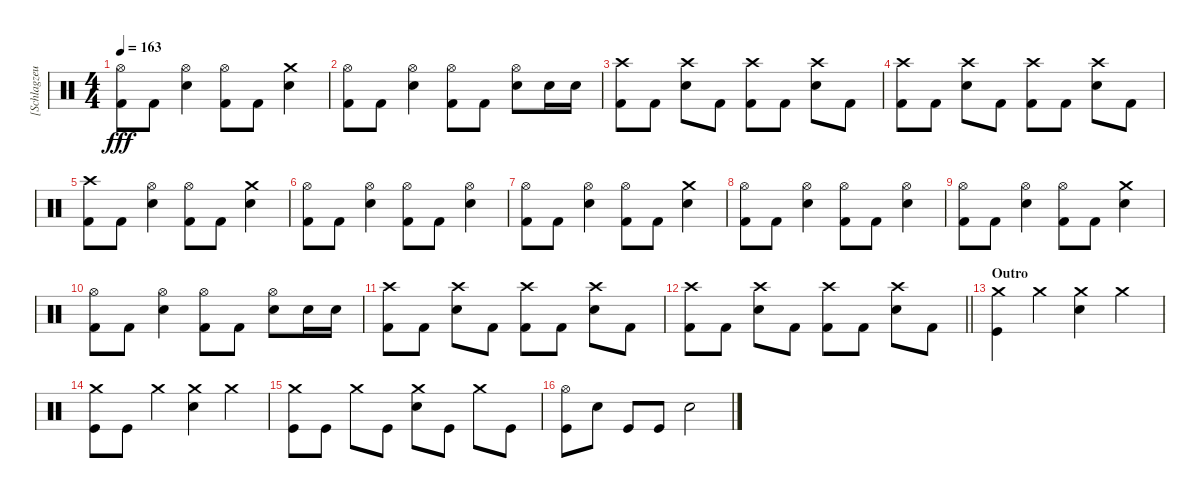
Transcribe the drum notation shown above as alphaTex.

\track ("[Schlagzeug]" "[Schlagzeu") {instrument percussion}
\staff {score}
\articulation defaults
\ts (4 4)
\tempo 163
\clef neutral
\ks c
("Hi-Hat (open)" "Kick (hit) 2").8{dy fff} "Kick (hit) 2".8 ("Hi-Hat (open)" "Electric Snare (hit)").4 ("Hi-Hat (open)" "Kick (hit) 2").8 "Kick (hit) 2".8 ("Crash medium (hit)" "Electric Snare (hit)").4 |
("Hi-Hat (open)" "Kick (hit) 2").8 "Kick (hit) 2".8 ("Hi-Hat (open)" "Electric Snare (hit)").4 ("Hi-Hat (open)" "Kick (hit) 2").8 "Kick (hit) 2".8 ("Hi-Hat (open)" "Electric Snare (hit)").8 "Electric Snare (hit)".16 "Electric Snare (hit)".16 |
("Crash high (hit)" "Kick (hit) 2").8 "Kick (hit) 2".8 ("Crash high (hit)" "Electric Snare (hit)").8 "Kick (hit) 2".8 ("Crash high (hit)" "Kick (hit) 2").8 "Kick (hit) 2".8 ("Crash high (hit)" "Electric Snare (hit)").8 "Kick (hit) 2".8 |
("Crash high (hit)" "Kick (hit) 2").8 "Kick (hit) 2".8 ("Crash high (hit)" "Electric Snare (hit)").8 "Kick (hit) 2".8 ("Crash high (hit)" "Kick (hit) 2").8 "Kick (hit) 2".8 ("Crash high (hit)" "Electric Snare (hit)").8 "Kick (hit) 2".8 |
("Crash high (hit)" "Kick (hit) 2").8 "Kick (hit) 2".8 ("Hi-Hat (open)" "Electric Snare (hit)").4 ("Hi-Hat (open)" "Kick (hit) 2").8 "Kick (hit) 2".8 ("Crash medium (hit)" "Electric Snare (hit)").4 |
("Hi-Hat (open)" "Kick (hit) 2").8 "Kick (hit) 2".8 ("Hi-Hat (open)" "Electric Snare (hit)").4 ("Hi-Hat (open)" "Kick (hit) 2").8 "Kick (hit) 2".8 ("Hi-Hat (open)" "Electric Snare (hit)").4 |
("Hi-Hat (open)" "Kick (hit) 2").8 "Kick (hit) 2".8 ("Hi-Hat (open)" "Electric Snare (hit)").4 ("Hi-Hat (open)" "Kick (hit) 2").8 "Kick (hit) 2".8 ("Crash medium (hit)" "Electric Snare (hit)").4 |
("Hi-Hat (open)" "Kick (hit) 2").8 "Kick (hit) 2".8 ("Hi-Hat (open)" "Electric Snare (hit)").4 ("Hi-Hat (open)" "Kick (hit) 2").8 "Kick (hit) 2".8 ("Hi-Hat (open)" "Electric Snare (hit)").4 |
("Hi-Hat (open)" "Kick (hit) 2").8 "Kick (hit) 2".8 ("Hi-Hat (open)" "Electric Snare (hit)").4 ("Hi-Hat (open)" "Kick (hit) 2").8 "Kick (hit) 2".8 ("Crash medium (hit)" "Electric Snare (hit)").4 |
("Hi-Hat (open)" "Kick (hit) 2").8 "Kick (hit) 2".8 ("Hi-Hat (open)" "Electric Snare (hit)").4 ("Hi-Hat (open)" "Kick (hit) 2").8 "Kick (hit) 2".8 ("Hi-Hat (open)" "Electric Snare (hit)").8 "Electric Snare (hit)".16 "Electric Snare (hit)".16 |
("Crash high (hit)" "Kick (hit) 2").8 "Kick (hit) 2".8 ("Crash high (hit)" "Electric Snare (hit)").8 "Kick (hit) 2".8 ("Crash high (hit)" "Kick (hit) 2").8 "Kick (hit) 2".8 ("Crash high (hit)" "Electric Snare (hit)").8 "Kick (hit) 2".8 |
\barLineRight lightlight
("Crash high (hit)" "Kick (hit) 2").8 "Kick (hit) 2".8 ("Crash high (hit)" "Electric Snare (hit)").8 "Kick (hit) 2".8 ("Crash high (hit)" "Kick (hit) 2").8 "Kick (hit) 2".8 ("Crash high (hit)" "Electric Snare (hit)").8 "Kick (hit) 2".8 |
\section ("" "Outro")
("Crash medium (hit)" "Kick (hit)").4 "Crash medium (hit)".4 ("Crash medium (hit)" "Electric Snare (hit)").4 "Crash medium (hit)".4 |
("Crash medium (hit)" "Kick (hit)").8 "Kick (hit)".8 "Crash medium (hit)".4 ("Crash medium (hit)" "Electric Snare (hit)").4 "Crash medium (hit)".4 |
("Crash medium (hit)" "Kick (hit)").8 "Kick (hit)".8 "Crash medium (hit)".8 "Kick (hit)".8 ("Crash medium (hit)" "Electric Snare (hit)").8 "Kick (hit)".8 "Crash medium (hit)".8 "Kick (hit)".8 |
("Kick (hit)" "Hi-Hat (open)").8 "Electric Snare (hit)".8 "Kick (hit)".8 "Kick (hit)".8 "Electric Snare (hit)".2
